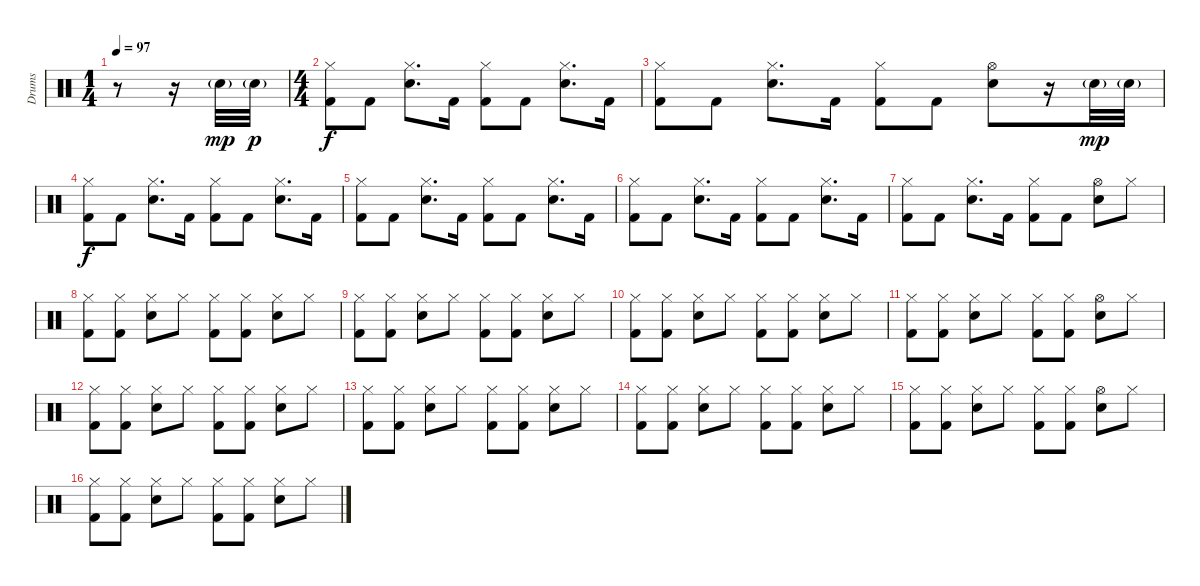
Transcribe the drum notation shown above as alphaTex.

\track ("Drums" "Drums") {instrument percussion}
\staff {score}
\articulation defaults
\ts (1 4)
\tempo 97
\clef neutral
\ks aminor
r.8{dy mp} r.16 "Snare (hit) 2"{g}.32 "Snare (hit) 2"{g}.32{dy p} |
\ts (4 4)
("Hi-Hat (closed)" "Kick (hit) 2").8{dy f} "Kick (hit) 2".8 ("Hi-Hat (closed)" "Snare (hit) 2").8{d} "Kick (hit) 2".16 ("Hi-Hat (closed)" "Kick (hit) 2").8 "Kick (hit) 2".8 ("Hi-Hat (closed)" "Snare (hit) 2").8{d} "Kick (hit) 2".16 |
("Hi-Hat (closed)" "Kick (hit) 2").8 "Kick (hit) 2".8 ("Hi-Hat (closed)" "Snare (hit) 2").8{d} "Kick (hit) 2".16 ("Hi-Hat (closed)" "Kick (hit) 2").8 "Kick (hit) 2".8 ("Hi-Hat (open)" "Snare (hit) 2").8 r.16 "Snare (hit) 2"{g}.32{dy mp} "Snare (hit) 2"{g}.32 |
("Hi-Hat (closed)" "Kick (hit) 2").8{dy f} "Kick (hit) 2".8 ("Hi-Hat (closed)" "Snare (hit) 2").8{d} "Kick (hit) 2".16 ("Hi-Hat (closed)" "Kick (hit) 2").8 "Kick (hit) 2".8 ("Hi-Hat (closed)" "Snare (hit) 2").8{d} "Kick (hit) 2".16 |
("Hi-Hat (closed)" "Kick (hit) 2").8 "Kick (hit) 2".8 ("Hi-Hat (closed)" "Snare (hit) 2").8{d} "Kick (hit) 2".16 ("Hi-Hat (closed)" "Kick (hit) 2").8 "Kick (hit) 2".8 ("Hi-Hat (closed)" "Snare (hit) 2").8{d} "Kick (hit) 2".16 |
("Hi-Hat (closed)" "Kick (hit) 2").8 "Kick (hit) 2".8 ("Hi-Hat (closed)" "Snare (hit) 2").8{d} "Kick (hit) 2".16 ("Hi-Hat (closed)" "Kick (hit) 2").8 "Kick (hit) 2".8 ("Hi-Hat (closed)" "Snare (hit) 2").8{d} "Kick (hit) 2".16 |
("Hi-Hat (closed)" "Kick (hit) 2").8 "Kick (hit) 2".8 ("Hi-Hat (closed)" "Snare (hit) 2").8{d} "Kick (hit) 2".16 ("Hi-Hat (closed)" "Kick (hit) 2").8 "Kick (hit) 2".8 ("Hi-Hat (open)" "Snare (hit) 2").8 "Hi-Hat (closed)".8 |
("Hi-Hat (closed)" "Kick (hit) 2").8 ("Hi-Hat (closed)" "Kick (hit) 2").8 ("Hi-Hat (closed)" "Snare (hit) 2").8 "Hi-Hat (closed)".8 ("Hi-Hat (closed)" "Kick (hit) 2").8 ("Hi-Hat (closed)" "Kick (hit) 2").8 ("Hi-Hat (closed)" "Snare (hit) 2").8 "Hi-Hat (closed)".8 |
("Hi-Hat (closed)" "Kick (hit) 2").8 ("Hi-Hat (closed)" "Kick (hit) 2").8 ("Hi-Hat (closed)" "Snare (hit) 2").8 "Hi-Hat (closed)".8 ("Hi-Hat (closed)" "Kick (hit) 2").8 ("Hi-Hat (closed)" "Kick (hit) 2").8 ("Hi-Hat (closed)" "Snare (hit) 2").8 "Hi-Hat (closed)".8 |
("Hi-Hat (closed)" "Kick (hit) 2").8 ("Hi-Hat (closed)" "Kick (hit) 2").8 ("Hi-Hat (closed)" "Snare (hit) 2").8 "Hi-Hat (closed)".8 ("Hi-Hat (closed)" "Kick (hit) 2").8 ("Hi-Hat (closed)" "Kick (hit) 2").8 ("Hi-Hat (closed)" "Snare (hit) 2").8 "Hi-Hat (closed)".8 |
("Hi-Hat (closed)" "Kick (hit) 2").8 ("Hi-Hat (closed)" "Kick (hit) 2").8 ("Hi-Hat (closed)" "Snare (hit) 2").8 "Hi-Hat (closed)".8 ("Hi-Hat (closed)" "Kick (hit) 2").8 ("Hi-Hat (closed)" "Kick (hit) 2").8 ("Hi-Hat (open)" "Snare (hit) 2").8 "Hi-Hat (closed)".8 |
("Hi-Hat (closed)" "Kick (hit) 2").8 ("Hi-Hat (closed)" "Kick (hit) 2").8 ("Hi-Hat (closed)" "Snare (hit) 2").8 "Hi-Hat (closed)".8 ("Hi-Hat (closed)" "Kick (hit) 2").8 ("Hi-Hat (closed)" "Kick (hit) 2").8 ("Hi-Hat (closed)" "Snare (hit) 2").8 "Hi-Hat (closed)".8 |
("Hi-Hat (closed)" "Kick (hit) 2").8 ("Hi-Hat (closed)" "Kick (hit) 2").8 ("Hi-Hat (closed)" "Snare (hit) 2").8 "Hi-Hat (closed)".8 ("Hi-Hat (closed)" "Kick (hit) 2").8 ("Hi-Hat (closed)" "Kick (hit) 2").8 ("Hi-Hat (closed)" "Snare (hit) 2").8 "Hi-Hat (closed)".8 |
("Hi-Hat (closed)" "Kick (hit) 2").8 ("Hi-Hat (closed)" "Kick (hit) 2").8 ("Hi-Hat (closed)" "Snare (hit) 2").8 "Hi-Hat (closed)".8 ("Hi-Hat (closed)" "Kick (hit) 2").8 ("Hi-Hat (closed)" "Kick (hit) 2").8 ("Hi-Hat (closed)" "Snare (hit) 2").8 "Hi-Hat (closed)".8 |
("Hi-Hat (closed)" "Kick (hit) 2").8 ("Hi-Hat (closed)" "Kick (hit) 2").8 ("Hi-Hat (closed)" "Snare (hit) 2").8 "Hi-Hat (closed)".8 ("Hi-Hat (closed)" "Kick (hit) 2").8 ("Hi-Hat (closed)" "Kick (hit) 2").8 ("Hi-Hat (open)" "Snare (hit) 2").8 "Hi-Hat (closed)".8 |
("Hi-Hat (closed)" "Kick (hit) 2").8 ("Hi-Hat (closed)" "Kick (hit) 2").8 ("Hi-Hat (closed)" "Snare (hit) 2").8 "Hi-Hat (closed)".8 ("Hi-Hat (closed)" "Kick (hit) 2").8 ("Hi-Hat (closed)" "Kick (hit) 2").8 ("Hi-Hat (closed)" "Snare (hit) 2").8 "Hi-Hat (closed)".8
